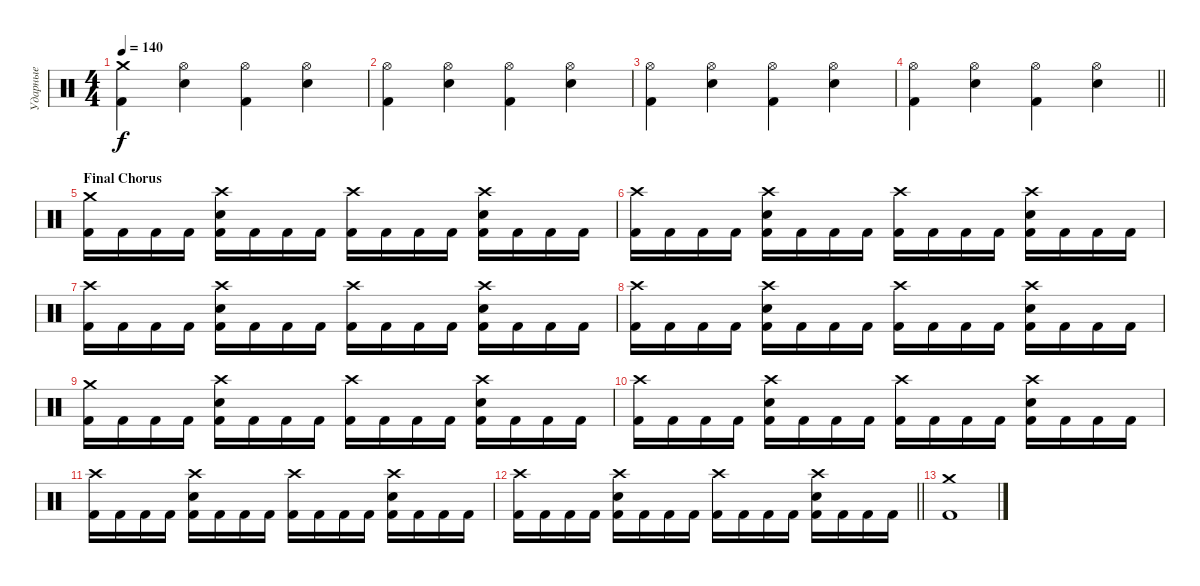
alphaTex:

\track ("Ударные" "Ударные") {instrument percussion}
\staff {score}
\articulation defaults
\ts (4 4)
\tempo 140
\clef neutral
\ks c
("Crash medium (hit)" "Kick (hit) 2").4{dy f} ("Hi-Hat (open)" "Electric Snare (hit)").4 ("Hi-Hat (open)" "Kick (hit) 2").4 ("Hi-Hat (open)" "Electric Snare (hit)").4 |
("Hi-Hat (open)" "Kick (hit) 2").4 ("Hi-Hat (open)" "Electric Snare (hit)").4 ("Hi-Hat (open)" "Kick (hit) 2").4 ("Hi-Hat (open)" "Electric Snare (hit)").4 |
("Hi-Hat (open)" "Kick (hit) 2").4 ("Hi-Hat (open)" "Electric Snare (hit)").4 ("Hi-Hat (open)" "Kick (hit) 2").4 ("Hi-Hat (open)" "Electric Snare (hit)").4 |
\barLineRight lightlight
("Hi-Hat (open)" "Kick (hit) 2").4 ("Hi-Hat (open)" "Electric Snare (hit)").4 ("Hi-Hat (open)" "Kick (hit) 2").4 ("Hi-Hat (open)" "Electric Snare (hit)").4 |
\section ("" "Final Chorus")
("Crash medium (hit)" "Kick (hit) 2").16 "Kick (hit) 2".16 "Kick (hit) 2".16 "Kick (hit) 2".16 ("Crash high (hit)" "Electric Snare (hit)" "Kick (hit) 2").16 "Kick (hit) 2".16 "Kick (hit) 2".16 "Kick (hit) 2".16 ("Crash high (hit)" "Kick (hit) 2").16 "Kick (hit) 2".16 "Kick (hit) 2".16 "Kick (hit) 2".16 ("Crash high (hit)" "Electric Snare (hit)" "Kick (hit) 2").16 "Kick (hit) 2".16 "Kick (hit) 2".16 "Kick (hit) 2".16 |
("Crash high (hit)" "Kick (hit) 2").16 "Kick (hit) 2".16 "Kick (hit) 2".16 "Kick (hit) 2".16 ("Crash high (hit)" "Electric Snare (hit)" "Kick (hit) 2").16 "Kick (hit) 2".16 "Kick (hit) 2".16 "Kick (hit) 2".16 ("Crash high (hit)" "Kick (hit) 2").16 "Kick (hit) 2".16 "Kick (hit) 2".16 "Kick (hit) 2".16 ("Crash high (hit)" "Electric Snare (hit)" "Kick (hit) 2").16 "Kick (hit) 2".16 "Kick (hit) 2".16 "Kick (hit) 2".16 |
("Crash high (hit)" "Kick (hit) 2").16 "Kick (hit) 2".16 "Kick (hit) 2".16 "Kick (hit) 2".16 ("Crash high (hit)" "Electric Snare (hit)" "Kick (hit) 2").16 "Kick (hit) 2".16 "Kick (hit) 2".16 "Kick (hit) 2".16 ("Crash high (hit)" "Kick (hit) 2").16 "Kick (hit) 2".16 "Kick (hit) 2".16 "Kick (hit) 2".16 ("Crash high (hit)" "Electric Snare (hit)" "Kick (hit) 2").16 "Kick (hit) 2".16 "Kick (hit) 2".16 "Kick (hit) 2".16 |
("Crash high (hit)" "Kick (hit) 2").16 "Kick (hit) 2".16 "Kick (hit) 2".16 "Kick (hit) 2".16 ("Crash high (hit)" "Electric Snare (hit)" "Kick (hit) 2").16 "Kick (hit) 2".16 "Kick (hit) 2".16 "Kick (hit) 2".16 ("Crash high (hit)" "Kick (hit) 2").16 "Kick (hit) 2".16 "Kick (hit) 2".16 "Kick (hit) 2".16 ("Crash high (hit)" "Electric Snare (hit)" "Kick (hit) 2").16 "Kick (hit) 2".16 "Kick (hit) 2".16 "Kick (hit) 2".16 |
("Crash medium (hit)" "Kick (hit) 2").16 "Kick (hit) 2".16 "Kick (hit) 2".16 "Kick (hit) 2".16 ("Crash high (hit)" "Electric Snare (hit)" "Kick (hit) 2").16 "Kick (hit) 2".16 "Kick (hit) 2".16 "Kick (hit) 2".16 ("Crash high (hit)" "Kick (hit) 2").16 "Kick (hit) 2".16 "Kick (hit) 2".16 "Kick (hit) 2".16 ("Crash high (hit)" "Electric Snare (hit)" "Kick (hit) 2").16 "Kick (hit) 2".16 "Kick (hit) 2".16 "Kick (hit) 2".16 |
("Crash high (hit)" "Kick (hit) 2").16 "Kick (hit) 2".16 "Kick (hit) 2".16 "Kick (hit) 2".16 ("Crash high (hit)" "Electric Snare (hit)" "Kick (hit) 2").16 "Kick (hit) 2".16 "Kick (hit) 2".16 "Kick (hit) 2".16 ("Crash high (hit)" "Kick (hit) 2").16 "Kick (hit) 2".16 "Kick (hit) 2".16 "Kick (hit) 2".16 ("Crash high (hit)" "Electric Snare (hit)" "Kick (hit) 2").16 "Kick (hit) 2".16 "Kick (hit) 2".16 "Kick (hit) 2".16 |
("Crash high (hit)" "Kick (hit) 2").16 "Kick (hit) 2".16 "Kick (hit) 2".16 "Kick (hit) 2".16 ("Crash high (hit)" "Electric Snare (hit)" "Kick (hit) 2").16 "Kick (hit) 2".16 "Kick (hit) 2".16 "Kick (hit) 2".16 ("Crash high (hit)" "Kick (hit) 2").16 "Kick (hit) 2".16 "Kick (hit) 2".16 "Kick (hit) 2".16 ("Crash high (hit)" "Electric Snare (hit)" "Kick (hit) 2").16 "Kick (hit) 2".16 "Kick (hit) 2".16 "Kick (hit) 2".16 |
\barLineRight lightlight
("Crash high (hit)" "Kick (hit) 2").16 "Kick (hit) 2".16 "Kick (hit) 2".16 "Kick (hit) 2".16 ("Crash high (hit)" "Electric Snare (hit)" "Kick (hit) 2").16 "Kick (hit) 2".16 "Kick (hit) 2".16 "Kick (hit) 2".16 ("Crash high (hit)" "Kick (hit) 2").16 "Kick (hit) 2".16 "Kick (hit) 2".16 "Kick (hit) 2".16 ("Crash high (hit)" "Electric Snare (hit)" "Kick (hit) 2").16 "Kick (hit) 2".16 "Kick (hit) 2".16 "Kick (hit) 2".16 |
("Crash medium (hit)" "Kick (hit) 2").1
